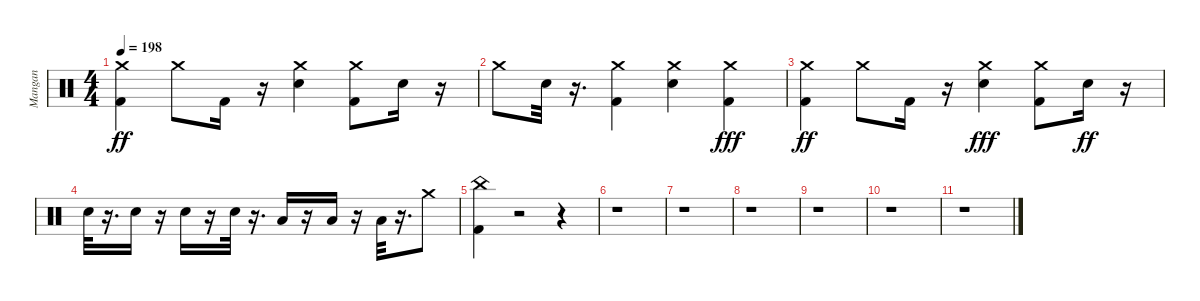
\track ("Mangan" "Mangan") {instrument percussion}
\staff {score}
\articulation defaults
\ts (4 4)
\tempo 198
\clef neutral
\ks c
("Kick (hit) 2" "Crash medium (hit)").4{dy ff} "Crash medium (hit)".8 "Kick (hit) 2".16 r.16 ("Snare (hit) 2" "Crash medium (hit)").4 ("Kick (hit) 2" "Crash medium (hit)").8 "Snare (hit) 2".16 r.16 |
"Crash medium (hit)".8 "Snare (hit) 2".32 r.16{d} ("Kick (hit) 2" "Crash medium (hit)").4 ("Snare (hit) 2" "Crash medium (hit)").4 ("Kick (hit) 2" "Crash medium (hit)").4{dy fff} |
("Kick (hit) 2" "Crash medium (hit)").4{dy ff} "Crash medium (hit)".8 "Kick (hit) 2".16 r.16 ("Snare (hit) 2" "Crash medium (hit)").4{dy fff} ("Kick (hit) 2" "Crash medium (hit)").8 "Snare (hit) 2".16{dy ff} r.16 |
"Snare (hit) 2".32 r.16{d} "Snare (hit) 2".16 r.16 "Snare (hit) 2".16 r.16 "Snare (hit) 2".32 r.16{d} "Low Floor Tom (hit)".16 r.16 "Low Floor Tom (hit)".16 r.16 "Low Floor Tom (hit)".32 r.16{d} "Crash medium (hit)".8 |
("Kick (hit) 2" "China (hit)").4 r.2 r.4 |
r.1 |
r.1 |
r.1 |
r.1 |
r.1 |
r.1
